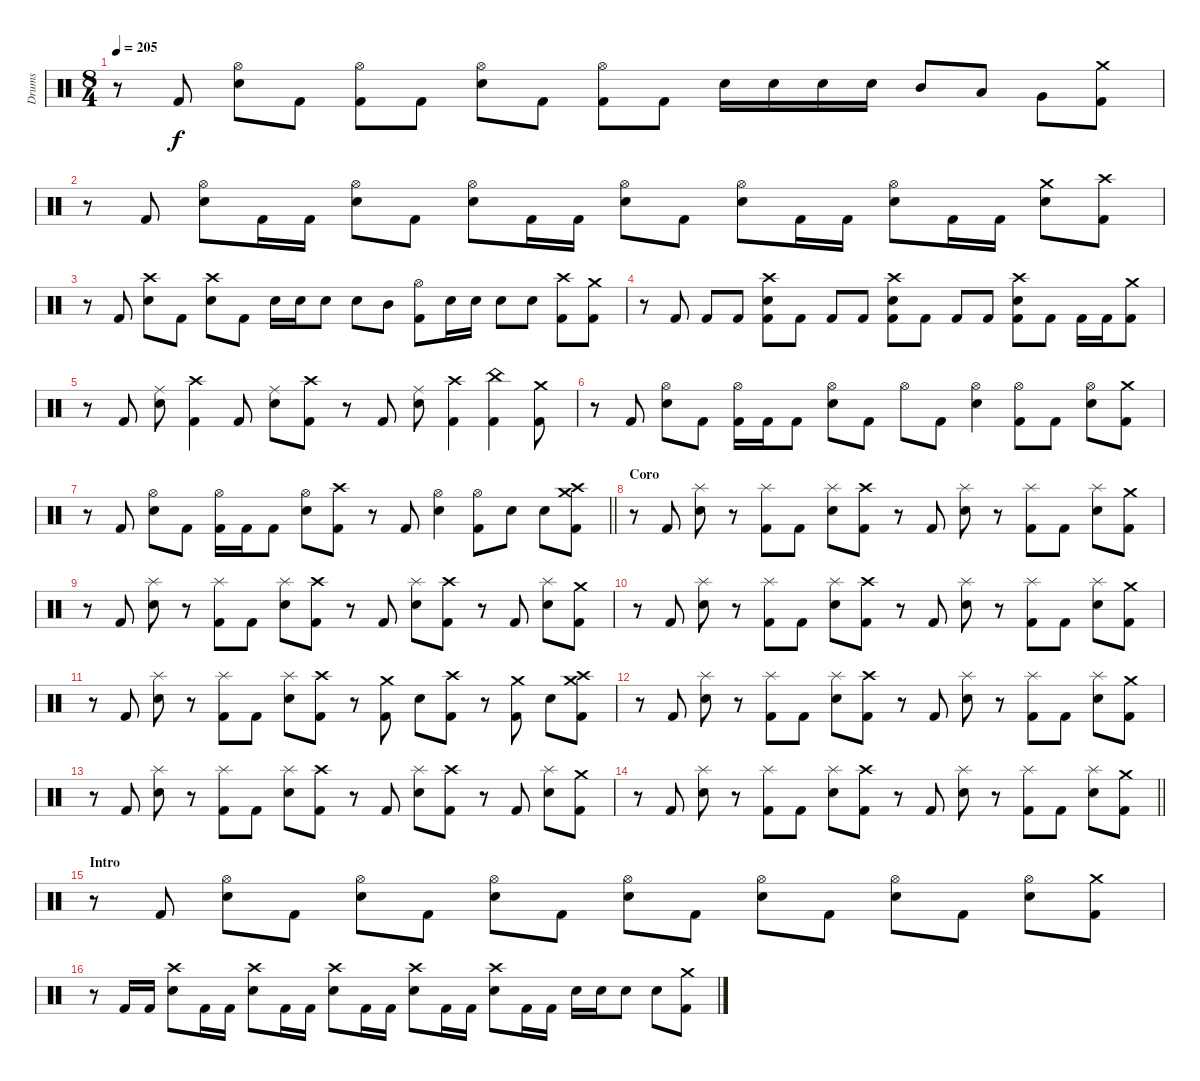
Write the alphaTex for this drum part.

\track ("Drums" "Drums") {instrument percussion}
\staff {score}
\articulation defaults
\ts (8 4)
\tempo 205
\clef neutral
\ks c
r.8{dy f} "Kick (hit) 2".8 ("Hi-Hat (open)" "Electric Snare (hit)").8 "Kick (hit) 2".8 ("Hi-Hat (open)" "Kick (hit) 2").8 "Kick (hit) 2".8 ("Hi-Hat (open)" "Electric Snare (hit)").8 "Kick (hit) 2".8 ("Hi-Hat (open)" "Kick (hit) 2").8 "Kick (hit) 2".8 "Electric Snare (hit)".16 "Electric Snare (hit)".16 "Electric Snare (hit)".16 "Electric Snare (hit)".16 "Mid Tom (hit)".8 "Low Tom (hit)".8 "Very Low Tom (hit)".8 ("Crash medium (hit)" "Kick (hit) 2").8 |
r.8 "Kick (hit) 2".8 ("Hi-Hat (open)" "Electric Snare (hit)").8 "Kick (hit) 2".16 "Kick (hit) 2".16 ("Hi-Hat (open)" "Electric Snare (hit)").8 "Kick (hit) 2".8 ("Hi-Hat (open)" "Electric Snare (hit)").8 "Kick (hit) 2".16 "Kick (hit) 2".16 ("Hi-Hat (open)" "Electric Snare (hit)").8 "Kick (hit) 2".8 ("Hi-Hat (open)" "Electric Snare (hit)").8 "Kick (hit) 2".16 "Kick (hit) 2".16 ("Hi-Hat (open)" "Electric Snare (hit)").8 "Kick (hit) 2".16 "Kick (hit) 2".16 ("Crash medium (hit)" "Electric Snare (hit)").8 ("Crash high (hit)" "Kick (hit) 2").8 |
r.8 "Kick (hit) 2".8 ("Crash high (hit)" "Electric Snare (hit)").8 "Kick (hit) 2".8 ("Crash high (hit)" "Electric Snare (hit)").8 "Kick (hit) 2".8 "Electric Snare (hit)".16 "Electric Snare (hit)".16 "Electric Snare (hit)".8 "Electric Snare (hit)".8 "Mid Tom (hit)".8 ("Hi-Hat (open)" "Kick (hit) 2").8 "Electric Snare (hit)".16 "Electric Snare (hit)".16 "Electric Snare (hit)".8 "Electric Snare (hit)".8 ("Crash high (hit)" "Kick (hit) 2").8 ("Crash medium (hit)" "Kick (hit) 2").8 |
r.8 "Kick (hit) 2".8 "Kick (hit) 2".8 "Kick (hit) 2".8 ("Crash high (hit)" "Electric Snare (hit)" "Kick (hit) 2").8 "Kick (hit) 2".8 "Kick (hit) 2".8 "Kick (hit) 2".8 ("Crash high (hit)" "Electric Snare (hit)" "Kick (hit) 2").8 "Kick (hit) 2".8 "Kick (hit) 2".8 "Kick (hit) 2".8 ("Crash high (hit)" "Electric Snare (hit)" "Kick (hit) 2").8 "Kick (hit) 2".8 "Kick (hit) 2".16 "Kick (hit) 2".16 ("Crash medium (hit)" "Kick (hit) 2").8 |
r.8 "Kick (hit) 2".8 ("Ride (middle)" "Electric Snare (hit)").8 ("Crash high (hit)" "Kick (hit) 2").4 "Kick (hit) 2".8 ("Ride (middle)" "Electric Snare (hit)").8 ("Crash high (hit)" "Kick (hit) 2").8 r.8 "Kick (hit) 2".8 ("Ride (middle)" "Electric Snare (hit)").8 ("Crash high (hit)" "Kick (hit) 2").4 ("China (hit)" "Kick (hit) 2").4 ("Crash medium (hit)" "Kick (hit) 2").8 |
r.8 "Kick (hit) 2".8 ("Hi-Hat (open)" "Electric Snare (hit)").8 "Kick (hit) 2".8 ("Hi-Hat (open)" "Kick (hit) 2").16 "Kick (hit) 2".16 "Kick (hit) 2".8 ("Hi-Hat (open)" "Electric Snare (hit)").8 "Kick (hit) 2".8 "Hi-Hat (open)".8 "Kick (hit) 2".8 ("Hi-Hat (open)" "Electric Snare (hit)").4 ("Hi-Hat (open)" "Kick (hit) 2").8 "Kick (hit) 2".8 ("Hi-Hat (open)" "Electric Snare (hit)").8 ("Crash medium (hit)" "Kick (hit) 2").8 |
\barLineRight lightlight
r.8 "Kick (hit) 2".8 ("Hi-Hat (open)" "Electric Snare (hit)").8 "Kick (hit) 2".8 ("Hi-Hat (open)" "Kick (hit) 2").16 "Kick (hit) 2".16 "Kick (hit) 2".8 ("Hi-Hat (open)" "Electric Snare (hit)").8 ("Crash high (hit)" "Kick (hit) 2").8 r.8 "Kick (hit) 2".8 ("Hi-Hat (open)" "Electric Snare (hit)").4 ("Hi-Hat (open)" "Kick (hit) 2").8 "Electric Snare (hit)".8 "Electric Snare (hit)".8 ("Crash medium (hit)" "Crash high (hit)" "Kick (hit) 2").8 |
\section ("" "Coro")
r.8 "Kick (hit) 2".8 ("Splash (hit)" "Electric Snare (hit)").8 r.8 ("Splash (hit)" "Kick (hit) 2").8 "Kick (hit) 2".8 ("Splash (hit)" "Electric Snare (hit)").8 ("Crash high (hit)" "Kick (hit) 2").8 r.8 "Kick (hit) 2".8 ("Splash (hit)" "Electric Snare (hit)").8 r.8 ("Splash (hit)" "Kick (hit) 2").8 "Kick (hit) 2".8 ("Splash (hit)" "Electric Snare (hit)").8 ("Crash medium (hit)" "Kick (hit) 2").8 |
r.8 "Kick (hit) 2".8 ("Splash (hit)" "Electric Snare (hit)").8 r.8 ("Splash (hit)" "Kick (hit) 2").8 "Kick (hit) 2".8 ("Splash (hit)" "Electric Snare (hit)").8 ("Crash high (hit)" "Kick (hit) 2").8 r.8 "Kick (hit) 2".8 ("Splash (hit)" "Electric Snare (hit)").8 ("Crash high (hit)" "Kick (hit) 2").8 r.8 "Kick (hit) 2".8 ("Splash (hit)" "Electric Snare (hit)").8 ("Crash medium (hit)" "Kick (hit) 2").8 |
r.8 "Kick (hit) 2".8 ("Splash (hit)" "Electric Snare (hit)").8 r.8 ("Splash (hit)" "Kick (hit) 2").8 "Kick (hit) 2".8 ("Splash (hit)" "Electric Snare (hit)").8 ("Crash high (hit)" "Kick (hit) 2").8 r.8 "Kick (hit) 2".8 ("Splash (hit)" "Electric Snare (hit)").8 r.8 ("Splash (hit)" "Kick (hit) 2").8 "Kick (hit) 2".8 ("Splash (hit)" "Electric Snare (hit)").8 ("Crash medium (hit)" "Kick (hit) 2").8 |
r.8 "Kick (hit) 2".8 ("Splash (hit)" "Electric Snare (hit)").8 r.8 ("Splash (hit)" "Kick (hit) 2").8 "Kick (hit) 2".8 ("Splash (hit)" "Electric Snare (hit)").8 ("Crash high (hit)" "Kick (hit) 2").8 r.8 ("Crash medium (hit)" "Kick (hit) 2").8 "Electric Snare (hit)".8 ("Crash high (hit)" "Kick (hit) 2").8 r.8 ("Crash medium (hit)" "Kick (hit) 2").8 "Electric Snare (hit)".8 ("Crash medium (hit)" "Crash high (hit)" "Kick (hit) 2").8 |
r.8 "Kick (hit) 2".8 ("Splash (hit)" "Electric Snare (hit)").8 r.8 ("Splash (hit)" "Kick (hit) 2").8 "Kick (hit) 2".8 ("Splash (hit)" "Electric Snare (hit)").8 ("Crash high (hit)" "Kick (hit) 2").8 r.8 "Kick (hit) 2".8 ("Splash (hit)" "Electric Snare (hit)").8 r.8 ("Splash (hit)" "Kick (hit) 2").8 "Kick (hit) 2".8 ("Splash (hit)" "Electric Snare (hit)").8 ("Crash medium (hit)" "Kick (hit) 2").8 |
r.8 "Kick (hit) 2".8 ("Splash (hit)" "Electric Snare (hit)").8 r.8 ("Splash (hit)" "Kick (hit) 2").8 "Kick (hit) 2".8 ("Splash (hit)" "Electric Snare (hit)").8 ("Crash high (hit)" "Kick (hit) 2").8 r.8 "Kick (hit) 2".8 ("Splash (hit)" "Electric Snare (hit)").8 ("Crash high (hit)" "Kick (hit) 2").8 r.8 "Kick (hit) 2".8 ("Splash (hit)" "Electric Snare (hit)").8 ("Crash medium (hit)" "Kick (hit) 2").8 |
\barLineRight lightlight
r.8 "Kick (hit) 2".8 ("Splash (hit)" "Electric Snare (hit)").8 r.8 ("Splash (hit)" "Kick (hit) 2").8 "Kick (hit) 2".8 ("Splash (hit)" "Electric Snare (hit)").8 ("Crash high (hit)" "Kick (hit) 2").8 r.8 "Kick (hit) 2".8 ("Splash (hit)" "Electric Snare (hit)").8 r.8 ("Splash (hit)" "Kick (hit) 2").8 "Kick (hit) 2".8 ("Splash (hit)" "Electric Snare (hit)").8 ("Crash medium (hit)" "Kick (hit) 2").8 |
\section ("" "Intro")
r.8 "Kick (hit) 2".8 ("Hi-Hat (open)" "Electric Snare (hit)").8 "Kick (hit) 2".8 ("Hi-Hat (open)" "Electric Snare (hit)").8 "Kick (hit) 2".8 ("Hi-Hat (open)" "Electric Snare (hit)").8 "Kick (hit) 2".8 ("Hi-Hat (open)" "Electric Snare (hit)").8 "Kick (hit) 2".8 ("Hi-Hat (open)" "Electric Snare (hit)").8 "Kick (hit) 2".8 ("Hi-Hat (open)" "Electric Snare (hit)").8 "Kick (hit) 2".8 ("Hi-Hat (open)" "Electric Snare (hit)").8 ("Crash medium (hit)" "Kick (hit) 2").8 |
r.8 "Kick (hit) 2".16 "Kick (hit) 2".16 ("Crash high (hit)" "Electric Snare (hit)").8 "Kick (hit) 2".16 "Kick (hit) 2".16 ("Crash high (hit)" "Electric Snare (hit)").8 "Kick (hit) 2".16 "Kick (hit) 2".16 ("Crash high (hit)" "Electric Snare (hit)").8 "Kick (hit) 2".16 "Kick (hit) 2".16 ("Crash high (hit)" "Electric Snare (hit)").8 "Kick (hit) 2".16 "Kick (hit) 2".16 ("Crash high (hit)" "Electric Snare (hit)").8 "Kick (hit) 2".16 "Kick (hit) 2".16 "Electric Snare (hit)".16 "Electric Snare (hit)".16 "Electric Snare (hit)".8 "Electric Snare (hit)".8 ("Crash medium (hit)" "Kick (hit) 2").8
